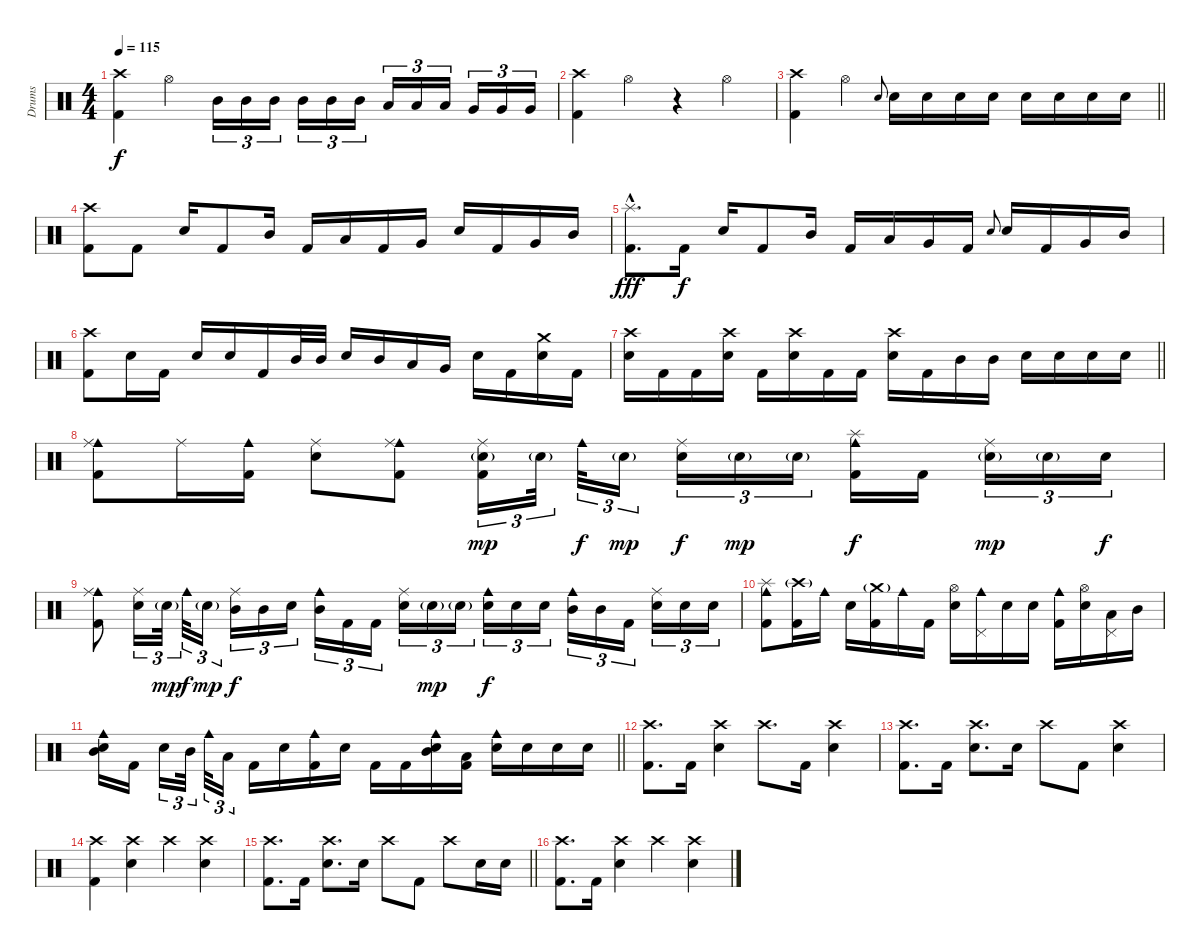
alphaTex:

\track ("Drums" "Drums") {instrument percussion}
\staff {score}
\articulation defaults
\ts (4 4)
\tempo 115
\clef neutral
\ks c
("Crash high (hit)" "Kick (hit) 2").4{dy f} "Hi-Hat (open)".4 "Mid Tom (hit)".16{tu (3 2)} "Mid Tom (hit)".16{tu (3 2)} "Mid Tom (hit)".16{tu (3 2) beam splitsecondary} "Mid Tom (hit)".16{tu (3 2)} "Mid Tom (hit)".16{tu (3 2)} "Mid Tom (hit)".16{tu (3 2)} "Low Tom (hit)".16{tu (3 2)} "Low Tom (hit)".16{tu (3 2)} "Low Tom (hit)".16{tu (3 2) beam splitsecondary} "Very Low Tom (hit)".16{tu (3 2)} "Very Low Tom (hit)".16{tu (3 2)} "Very Low Tom (hit)".16{tu (3 2)} |
("Crash high (hit)" "Kick (hit) 2").4 "Hi-Hat (open)".4 r.4 "Hi-Hat (open)".4 |
\barLineRight lightlight
("Crash high (hit)" "Kick (hit) 2").4 "Hi-Hat (open)".4 "Electric Snare (hit)".8{gr onbeat} "Electric Snare (hit)".16 "Electric Snare (hit)".16 "Electric Snare (hit)".16 "Electric Snare (hit)".16 "Electric Snare (hit)".16 "Electric Snare (hit)".16 "Electric Snare (hit)".16 "Electric Snare (hit)".16 |
("Crash high (hit)" "Kick (hit) 2").8 "Kick (hit) 2".8 "Electric Snare (hit)".16 "Kick (hit) 2".8 "Mid Tom (hit)".16 "Kick (hit) 2".16 "Low Tom (hit)".16 "Kick (hit) 2".16 "Very Low Tom (hit)".16 "Electric Snare (hit)".16 "Kick (hit) 2".16 "Very Low Tom (hit)".16 "Mid Tom (hit)".16 |
("Splash (hit)"{hac} "Kick (hit) 2").8{d dy fff} "Kick (hit) 2".16{dy f} "Electric Snare (hit)".16 "Kick (hit) 2".8 "Mid Tom (hit)".16 "Kick (hit) 2".16 "Low Tom (hit)".16 "Very Low Tom (hit)".16 "Kick (hit) 2".16 "Electric Snare (hit)".8{gr onbeat} "Electric Snare (hit)".16 "Kick (hit) 2".16 "Very Low Tom (hit)".16 "Mid Tom (hit)".16 |
("Crash high (hit)" "Kick (hit) 2").8 "Electric Snare (hit)".16 "Kick (hit) 2".16 "Electric Snare (hit)".16 "Electric Snare (hit)".16 "Kick (hit) 2".16 "Mid Tom (hit)".32 "Mid Tom (hit)".32 "Electric Snare (hit)".16 "Mid Tom (hit)".16 "Low Tom (hit)".16 "Very Low Tom (hit)".16 "Electric Snare (hit)".16 "Kick (hit) 2".16 ("Crash medium (hit)" "Electric Snare (hit)").16 "Kick (hit) 2".16 |
\barLineRight lightlight
("Crash high (hit)" "Electric Snare (hit)").16 "Kick (hit) 2".16 "Kick (hit) 2".16 ("Crash high (hit)" "Electric Snare (hit)").16 "Kick (hit) 2".16 ("Crash high (hit)" "Electric Snare (hit)").16 "Kick (hit) 2".16 "Kick (hit) 2".16 ("Crash high (hit)" "Electric Snare (hit)").16 "Kick (hit) 2".16 "Mid Tom (hit)".16 "Mid Tom (hit)".16 "Electric Snare (hit)".16 "Electric Snare (hit)".16 "Electric Snare (hit)".16 "Electric Snare (hit)".16 |
("Cowbell medium (hit)" "Ride (middle)" "Kick (hit) 2").8 "Ride (middle)".16 ("Cowbell medium (hit)" "Kick (hit) 2").16 ("Ride (middle)" "Electric Snare (hit)").8 ("Cowbell medium (hit)" "Ride (middle)" "Kick (hit) 2").8 ("Ride (middle)" "Electric Snare (hit)"{g} "Kick (hit) 2").16{tu (3 2) dy mp} "Electric Snare (hit)"{g}.32{tu (3 2) beam splitsecondary} "Cowbell medium (hit)".32{tu (3 2) dy f} "Electric Snare (hit)"{g}.16{tu (3 2) dy mp beam splitsecondary} ("Ride (middle)" "Electric Snare (hit)").16{tu (3 2) dy f} "Electric Snare (hit)"{g}.16{tu (3 2) dy mp} "Electric Snare (hit)"{g}.16{tu (3 2)} ("Cowbell medium (hit)" "Splash (hit)" "Kick (hit) 2").16{dy f} "Kick (hit) 2".16{beam splitsecondary} ("Ride (middle)" "Electric Snare (hit)"{g}).16{tu (3 2) dy mp} "Electric Snare (hit)"{g}.16{tu (3 2)} "Electric Snare (hit)".16{tu (3 2) dy f} |
("Cowbell medium (hit)" "Ride (middle)" "Kick (hit) 2").8 ("Ride (middle)" "Electric Snare (hit)").16{tu (3 2)} "Electric Snare (hit)"{g}.32{tu (3 2) dy mp beam splitsecondary} "Cowbell medium (hit)".32{tu (3 2) dy f} "Electric Snare (hit)"{g}.16{tu (3 2) dy mp} ("Ride (middle)" "Mid Tom (hit)").16{tu (3 2) dy f} "Mid Tom (hit)".16{tu (3 2)} "Electric Snare (hit)".16{tu (3 2) beam splitsecondary} ("Cowbell medium (hit)" "Mid Tom (hit)").16{tu (3 2)} "Kick (hit) 2".16{tu (3 2)} "Kick (hit) 2".16{tu (3 2)} ("Ride (middle)" "Electric Snare (hit)").16{tu (3 2)} "Electric Snare (hit)"{g}.16{tu (3 2) dy mp} "Electric Snare (hit)"{g}.16{tu (3 2) beam splitsecondary} ("Cowbell medium (hit)" "Electric Snare (hit)").16{tu (3 2) dy f} "Electric Snare (hit)".16{tu (3 2)} "Electric Snare (hit)".16{tu (3 2)} ("Cowbell medium (hit)" "Mid Tom (hit)").16{tu (3 2)} "Mid Tom (hit)".16{tu (3 2)} "Kick (hit) 2".16{tu (3 2) beam splitsecondary} ("Ride (middle)" "Electric Snare (hit)").16{tu (3 2)} "Electric Snare (hit)".16{tu (3 2)} "Electric Snare (hit)".16{tu (3 2)} |
("Cowbell medium (hit)" "Splash (hit)" "Kick (hit) 2").8 ("Crash high (hit)"{g} "Kick (hit) 2").16 "Cowbell medium (hit)".16 "Electric Snare (hit)".16 ("Crash medium (hit)"{g} "Kick (hit) 2").16 "Cowbell medium (hit)".16 "Kick (hit) 2".16 ("Hi-Hat (open)" "Electric Snare (hit)").16 ("Cowbell medium (hit)" "Pedal Hi-Hat (hit)").16 "Electric Snare (hit)".16 "Electric Snare (hit)".16 ("Cowbell medium (hit)" "Kick (hit) 2").16 ("Hi-Hat (open)" "Electric Snare (hit)").16 ("Pedal Hi-Hat (hit)" "Low Tom (hit)").16 "Mid Tom (hit)".16 |
\barLineRight lightlight
("Cowbell medium (hit)" "Mid Tom (hit)" "Electric Snare (hit)").16 "Kick (hit) 2".16{beam splitsecondary} "Electric Snare (hit)".16{tu (3 2)} "Mid Tom (hit)".32{tu (3 2) beam splitsecondary} "Cowbell medium (hit)".32{tu (3 2)} "Low Tom (hit)".16{tu (3 2)} "Kick (hit) 2".16 "Electric Snare (hit)".16 ("Cowbell medium (hit)" "Kick (hit) 2").16 "Electric Snare (hit)".16 "Kick (hit) 2".16 "Kick (hit) 2".16 ("Cowbell medium (hit)" "Mid Tom (hit)" "Electric Snare (hit)").16 ("Low Tom (hit)" "Kick (hit) 2").16 ("Cowbell medium (hit)" "Electric Snare (hit)").16 "Electric Snare (hit)".16 "Electric Snare (hit)".16 "Electric Snare (hit)".16 |
("Crash high (hit)" "Kick (hit) 2").8{d} "Kick (hit) 2".16 ("Crash high (hit)" "Electric Snare (hit)").4 "Crash high (hit)".8{d} "Kick (hit) 2".16 ("Crash high (hit)" "Electric Snare (hit)").4 |
("Crash high (hit)" "Kick (hit) 2").8{d} "Kick (hit) 2".16 ("Crash high (hit)" "Electric Snare (hit)").8{d} "Electric Snare (hit)".16 "Crash high (hit)".8 "Kick (hit) 2".8 ("Crash high (hit)" "Electric Snare (hit)").4 |
("Crash high (hit)" "Kick (hit) 2").4 ("Crash high (hit)" "Electric Snare (hit)").4 "Crash high (hit)".4 ("Crash high (hit)" "Electric Snare (hit)").4 |
\barLineRight lightlight
("Crash high (hit)" "Kick (hit) 2").8{d} "Kick (hit) 2".16 ("Crash high (hit)" "Electric Snare (hit)").8{d} "Electric Snare (hit)".16 "Crash high (hit)".8 "Kick (hit) 2".8 "Crash high (hit)".8 "Electric Snare (hit)".16 "Electric Snare (hit)".16 |
("Crash high (hit)" "Kick (hit) 2").8{d} "Kick (hit) 2".16 ("Crash high (hit)" "Electric Snare (hit)").4 "Crash high (hit)".4 ("Crash high (hit)" "Electric Snare (hit)").4
